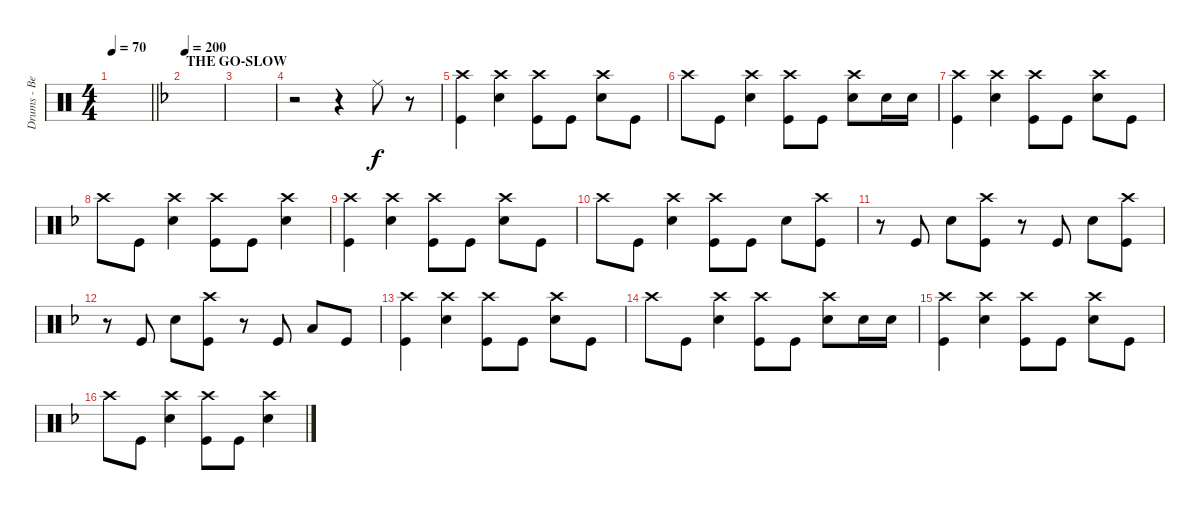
\track ("Drums - Ben Johnston" "Drums - Be") {instrument percussion}
\staff {score}
\articulation defaults
\ts (4 4)
\tempo 70
\clef neutral
\barLineRight lightlight
\ks c
|
\section ("" "THE GO-SLOW")
\tempo 200
\ks f
|
|
r.2 r.4 "Ride (middle)".8 r.8 |
("Crash high (hit)" "Kick (hit)").4 ("Crash high (hit)" "Snare (hit) 2").4 ("Crash high (hit)" "Kick (hit)").8 "Kick (hit)".8 ("Crash high (hit)" "Snare (hit) 2").8 "Kick (hit)".8 |
"Crash high (hit)".8 "Kick (hit)".8 ("Crash high (hit)" "Snare (hit) 2").4 ("Crash high (hit)" "Kick (hit)").8 "Kick (hit)".8 ("Crash high (hit)" "Snare (hit) 2").8 "Snare (hit) 2".16 "Snare (hit) 2".16 |
("Crash high (hit)" "Kick (hit)").4 ("Crash high (hit)" "Snare (hit) 2").4 ("Crash high (hit)" "Kick (hit)").8 "Kick (hit)".8 ("Crash high (hit)" "Snare (hit) 2").8 "Kick (hit)".8 |
"Crash high (hit)".8 "Kick (hit)".8 ("Crash high (hit)" "Snare (hit) 2").4 ("Crash high (hit)" "Kick (hit)").8 "Kick (hit)".8 ("Crash high (hit)" "Snare (hit) 2").4 |
("Crash high (hit)" "Kick (hit)").4 ("Crash high (hit)" "Snare (hit) 2").4 ("Crash high (hit)" "Kick (hit)").8 "Kick (hit)".8 ("Crash high (hit)" "Snare (hit) 2").8 "Kick (hit)".8 |
"Crash high (hit)".8 "Kick (hit)".8 ("Crash high (hit)" "Snare (hit) 2").4 ("Crash high (hit)" "Kick (hit)").8 "Kick (hit)".8 "Snare (hit) 2".8 ("Crash high (hit)" "Kick (hit)").8 |
r.8 "Kick (hit)".8 "Snare (hit) 2".8 ("Crash high (hit)" "Kick (hit)").8 r.8 "Kick (hit)".8 "Snare (hit) 2".8 ("Crash high (hit)" "Kick (hit)").8 |
r.8 "Kick (hit)".8 "Snare (hit) 2".8 ("Crash high (hit)" "Kick (hit)").8 r.8 "Kick (hit)".8 "Low Tom (hit)".8 "Kick (hit)".8 |
("Crash high (hit)" "Kick (hit)").4 ("Crash high (hit)" "Snare (hit) 2").4 ("Crash high (hit)" "Kick (hit)").8 "Kick (hit)".8 ("Crash high (hit)" "Snare (hit) 2").8 "Kick (hit)".8 |
"Crash high (hit)".8 "Kick (hit)".8 ("Crash high (hit)" "Snare (hit) 2").4 ("Crash high (hit)" "Kick (hit)").8 "Kick (hit)".8 ("Crash high (hit)" "Snare (hit) 2").8 "Snare (hit) 2".16 "Snare (hit) 2".16 |
("Crash high (hit)" "Kick (hit)").4 ("Crash high (hit)" "Snare (hit) 2").4 ("Crash high (hit)" "Kick (hit)").8 "Kick (hit)".8 ("Crash high (hit)" "Snare (hit) 2").8 "Kick (hit)".8 |
"Crash high (hit)".8 "Kick (hit)".8 ("Crash high (hit)" "Snare (hit) 2").4 ("Crash high (hit)" "Kick (hit)").8 "Kick (hit)".8 ("Crash high (hit)" "Snare (hit) 2").4
